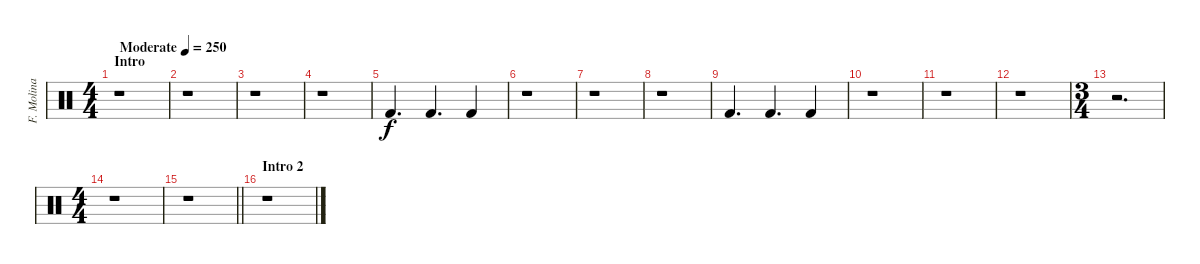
\track ("F. Molina [Batería]" "F. Molina ") {instrument percussion}
\staff {score}
\articulation defaults
\ts (4 4)
\section ("" "Intro")
\tempo (250 "Moderate")
\clef neutral
\ks c
r.1{dy f} |
r.1 |
r.1 |
r.1 |
"Kick (hit) 2".4{d} "Kick (hit) 2".4{d} "Kick (hit) 2".4 |
r.1 |
r.1 |
r.1 |
"Kick (hit) 2".4{d} "Kick (hit) 2".4{d} "Kick (hit) 2".4 |
r.1 |
r.1 |
r.1 |
\ts (3 4)
r.2{d} |
\ts (4 4)
r.1 |
\barLineRight lightlight
r.1 |
\section ("" "Intro 2")
r.1
